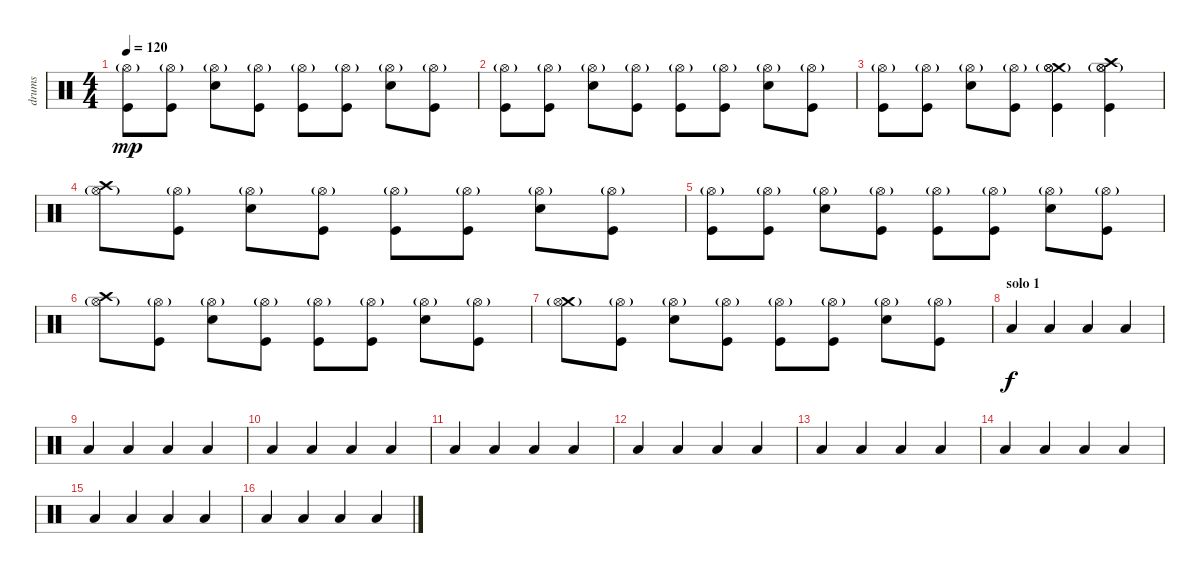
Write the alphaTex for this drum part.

\track ("drums" "drums") {instrument percussion}
\staff {score}
\articulation defaults
\ts (4 4)
\tempo 120
\clef neutral
\ks c
("Kick (hit)" "Hi-Hat (open)"{g}).8{dy mp} ("Kick (hit)" "Hi-Hat (open)"{g}).8 ("Electric Snare (hit)" "Hi-Hat (open)"{g}).8 ("Kick (hit)" "Hi-Hat (open)"{g}).8 ("Kick (hit)" "Hi-Hat (open)"{g}).8 ("Kick (hit)" "Hi-Hat (open)"{g}).8 ("Electric Snare (hit)" "Hi-Hat (open)"{g}).8 ("Kick (hit)" "Hi-Hat (open)"{g}).8 |
("Kick (hit)" "Hi-Hat (open)"{g}).8 ("Kick (hit)" "Hi-Hat (open)"{g}).8 ("Electric Snare (hit)" "Hi-Hat (open)"{g}).8 ("Kick (hit)" "Hi-Hat (open)"{g}).8 ("Kick (hit)" "Hi-Hat (open)"{g}).8 ("Kick (hit)" "Hi-Hat (open)"{g}).8 ("Electric Snare (hit)" "Hi-Hat (open)"{g}).8 ("Kick (hit)" "Hi-Hat (open)"{g}).8 |
("Kick (hit)" "Hi-Hat (open)"{g}).8 ("Kick (hit)" "Hi-Hat (open)"{g}).8 ("Electric Snare (hit)" "Hi-Hat (open)"{g}).8 ("Kick (hit)" "Hi-Hat (open)"{g}).8 ("Crash medium (hit)" "Hi-Hat (open)" "Kick (hit)" "Hi-Hat (open)"{g}).4 ("Crash high (hit)" "Hi-Hat (open)" "Kick (hit)" "Hi-Hat (open)"{g}).4 |
("Crash high (hit)" "Hi-Hat (open)"{g}).8 ("Kick (hit)" "Hi-Hat (open)"{g}).8 ("Electric Snare (hit)" "Hi-Hat (open)"{g}).8 ("Kick (hit)" "Hi-Hat (open)"{g}).8 ("Kick (hit)" "Hi-Hat (open)"{g}).8 ("Kick (hit)" "Hi-Hat (open)"{g}).8 ("Electric Snare (hit)" "Hi-Hat (open)"{g}).8 ("Kick (hit)" "Hi-Hat (open)"{g}).8 |
("Kick (hit)" "Hi-Hat (open)"{g}).8 ("Kick (hit)" "Hi-Hat (open)"{g}).8 ("Electric Snare (hit)" "Hi-Hat (open)"{g}).8 ("Kick (hit)" "Hi-Hat (open)"{g}).8 ("Kick (hit)" "Hi-Hat (open)"{g}).8 ("Kick (hit)" "Hi-Hat (open)"{g}).8 ("Electric Snare (hit)" "Hi-Hat (open)"{g}).8 ("Kick (hit)" "Hi-Hat (open)"{g}).8 |
("Crash high (hit)" "Hi-Hat (open)"{g}).8 ("Kick (hit)" "Hi-Hat (open)"{g}).8 ("Electric Snare (hit)" "Hi-Hat (open)"{g}).8 ("Kick (hit)" "Hi-Hat (open)"{g}).8 ("Kick (hit)" "Hi-Hat (open)"{g}).8 ("Kick (hit)" "Hi-Hat (open)"{g}).8 ("Electric Snare (hit)" "Hi-Hat (open)"{g}).8 ("Kick (hit)" "Hi-Hat (open)"{g}).8 |
("Crash medium (hit)" "Hi-Hat (open)"{g}).8 ("Kick (hit)" "Hi-Hat (open)"{g}).8 ("Electric Snare (hit)" "Hi-Hat (open)"{g}).8 ("Kick (hit)" "Hi-Hat (open)"{g}).8 ("Kick (hit)" "Hi-Hat (open)"{g}).8 ("Kick (hit)" "Hi-Hat (open)"{g}).8 ("Electric Snare (hit)" "Hi-Hat (open)"{g}).8 ("Kick (hit)" "Hi-Hat (open)"{g}).8 |
\section ("" "solo 1")
"Low Tom (hit)".4{dy f} "Low Tom (hit)".4 "Low Tom (hit)".4 "Low Tom (hit)".4 |
"Low Tom (hit)".4 "Low Tom (hit)".4 "Low Tom (hit)".4 "Low Tom (hit)".4 |
"Low Tom (hit)".4 "Low Tom (hit)".4 "Low Tom (hit)".4 "Low Tom (hit)".4 |
"Low Tom (hit)".4 "Low Tom (hit)".4 "Low Tom (hit)".4 "Low Tom (hit)".4 |
"Low Tom (hit)".4 "Low Tom (hit)".4 "Low Tom (hit)".4 "Low Tom (hit)".4 |
"Low Tom (hit)".4 "Low Tom (hit)".4 "Low Tom (hit)".4 "Low Tom (hit)".4 |
"Low Tom (hit)".4 "Low Tom (hit)".4 "Low Tom (hit)".4 "Low Tom (hit)".4 |
"Low Tom (hit)".4 "Low Tom (hit)".4 "Low Tom (hit)".4 "Low Tom (hit)".4 |
"Low Tom (hit)".4 "Low Tom (hit)".4 "Low Tom (hit)".4 "Low Tom (hit)".4
